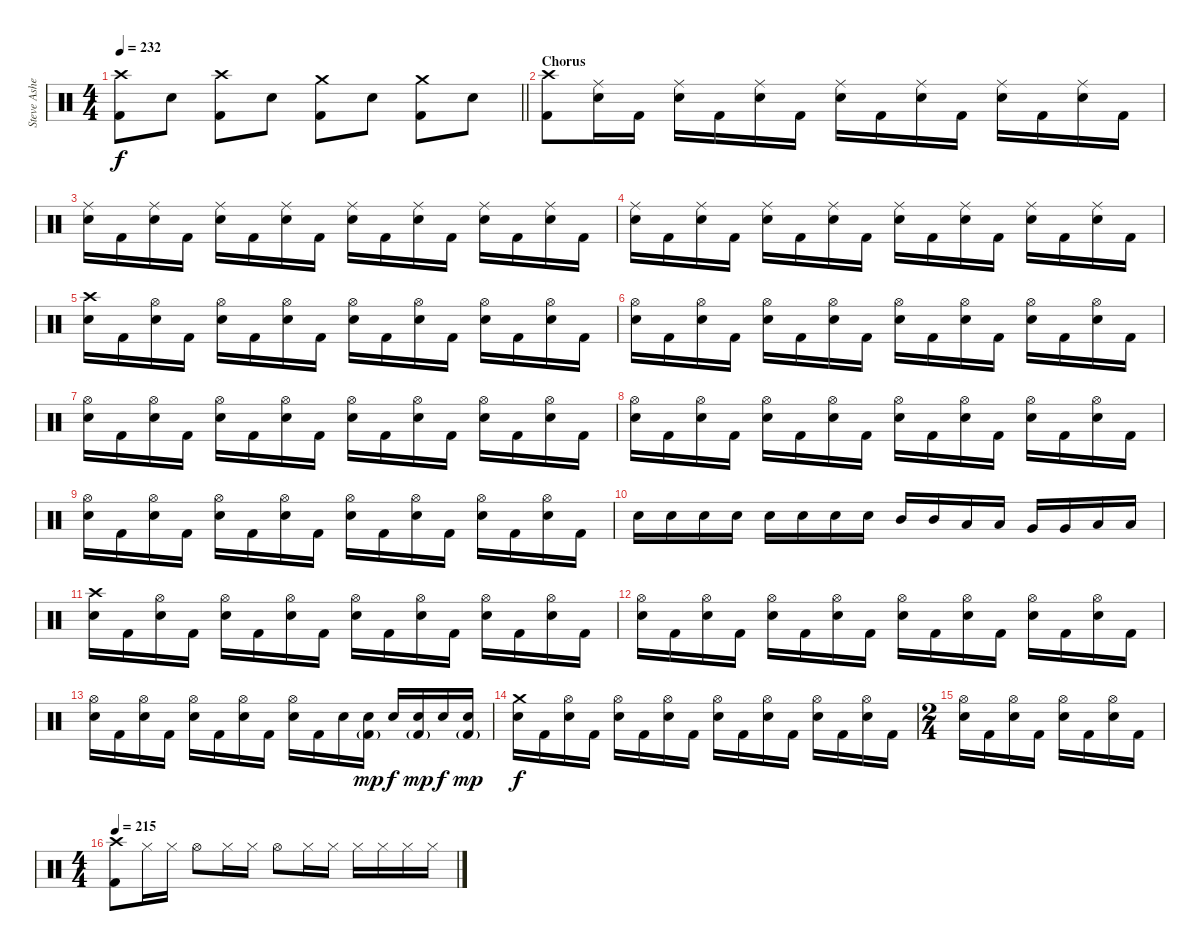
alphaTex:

\track ("Steve Asheim" "Steve Ashe") {instrument percussion}
\staff {score}
\articulation defaults
\ts (4 4)
\tempo 232
\clef neutral
\barLineRight lightlight
\ks c
("Crash high (hit)" "Kick (hit) 2").8{dy f} "Electric Snare (hit)".8 ("Crash high (hit)" "Kick (hit) 2").8 "Electric Snare (hit)".8 ("Crash medium (hit)" "Kick (hit) 2").8 "Electric Snare (hit)".8 ("Crash medium (hit)" "Kick (hit) 2").8 "Electric Snare (hit)".8 |
\section ("" "Chorus")
("Crash high (hit)" "Kick (hit) 2").8 ("Ride (middle)" "Electric Snare (hit)").16 "Kick (hit) 2".16 ("Ride (middle)" "Electric Snare (hit)").16 "Kick (hit) 2".16 ("Ride (middle)" "Electric Snare (hit)").16 "Kick (hit) 2".16 ("Ride (middle)" "Electric Snare (hit)").16 "Kick (hit) 2".16 ("Ride (middle)" "Electric Snare (hit)").16 "Kick (hit) 2".16 ("Ride (middle)" "Electric Snare (hit)").16 "Kick (hit) 2".16 ("Ride (middle)" "Electric Snare (hit)").16 "Kick (hit) 2".16 |
("Ride (middle)" "Electric Snare (hit)").16 "Kick (hit) 2".16 ("Ride (middle)" "Electric Snare (hit)").16 "Kick (hit) 2".16 ("Ride (middle)" "Electric Snare (hit)").16 "Kick (hit) 2".16 ("Ride (middle)" "Electric Snare (hit)").16 "Kick (hit) 2".16 ("Ride (middle)" "Electric Snare (hit)").16 "Kick (hit) 2".16 ("Ride (middle)" "Electric Snare (hit)").16 "Kick (hit) 2".16 ("Ride (middle)" "Electric Snare (hit)").16 "Kick (hit) 2".16 ("Ride (middle)" "Electric Snare (hit)").16 "Kick (hit) 2".16 |
("Ride (middle)" "Electric Snare (hit)").16 "Kick (hit) 2".16 ("Ride (middle)" "Electric Snare (hit)").16 "Kick (hit) 2".16 ("Ride (middle)" "Electric Snare (hit)").16 "Kick (hit) 2".16 ("Ride (middle)" "Electric Snare (hit)").16 "Kick (hit) 2".16 ("Ride (middle)" "Electric Snare (hit)").16 "Kick (hit) 2".16 ("Ride (middle)" "Electric Snare (hit)").16 "Kick (hit) 2".16 ("Ride (middle)" "Electric Snare (hit)").16 "Kick (hit) 2".16 ("Ride (middle)" "Electric Snare (hit)").16 "Kick (hit) 2".16 |
("Crash high (hit)" "Electric Snare (hit)").16 "Kick (hit) 2".16 ("Hi-Hat (open)" "Electric Snare (hit)").16 "Kick (hit) 2".16 ("Hi-Hat (open)" "Electric Snare (hit)").16 "Kick (hit) 2".16 ("Hi-Hat (open)" "Electric Snare (hit)").16 "Kick (hit) 2".16 ("Hi-Hat (open)" "Electric Snare (hit)").16 "Kick (hit) 2".16 ("Hi-Hat (open)" "Electric Snare (hit)").16 "Kick (hit) 2".16 ("Hi-Hat (open)" "Electric Snare (hit)").16 "Kick (hit) 2".16 ("Hi-Hat (open)" "Electric Snare (hit)").16 "Kick (hit) 2".16 |
("Hi-Hat (open)" "Electric Snare (hit)").16 "Kick (hit) 2".16 ("Hi-Hat (open)" "Electric Snare (hit)").16 "Kick (hit) 2".16 ("Hi-Hat (open)" "Electric Snare (hit)").16 "Kick (hit) 2".16 ("Hi-Hat (open)" "Electric Snare (hit)").16 "Kick (hit) 2".16 ("Hi-Hat (open)" "Electric Snare (hit)").16 "Kick (hit) 2".16 ("Hi-Hat (open)" "Electric Snare (hit)").16 "Kick (hit) 2".16 ("Hi-Hat (open)" "Electric Snare (hit)").16 "Kick (hit) 2".16 ("Hi-Hat (open)" "Electric Snare (hit)").16 "Kick (hit) 2".16 |
("Hi-Hat (open)" "Electric Snare (hit)").16 "Kick (hit) 2".16 ("Hi-Hat (open)" "Electric Snare (hit)").16 "Kick (hit) 2".16 ("Hi-Hat (open)" "Electric Snare (hit)").16 "Kick (hit) 2".16 ("Hi-Hat (open)" "Electric Snare (hit)").16 "Kick (hit) 2".16 ("Hi-Hat (open)" "Electric Snare (hit)").16 "Kick (hit) 2".16 ("Hi-Hat (open)" "Electric Snare (hit)").16 "Kick (hit) 2".16 ("Hi-Hat (open)" "Electric Snare (hit)").16 "Kick (hit) 2".16 ("Hi-Hat (open)" "Electric Snare (hit)").16 "Kick (hit) 2".16 |
("Hi-Hat (open)" "Electric Snare (hit)").16 "Kick (hit) 2".16 ("Hi-Hat (open)" "Electric Snare (hit)").16 "Kick (hit) 2".16 ("Hi-Hat (open)" "Electric Snare (hit)").16 "Kick (hit) 2".16 ("Hi-Hat (open)" "Electric Snare (hit)").16 "Kick (hit) 2".16 ("Hi-Hat (open)" "Electric Snare (hit)").16 "Kick (hit) 2".16 ("Hi-Hat (open)" "Electric Snare (hit)").16 "Kick (hit) 2".16 ("Hi-Hat (open)" "Electric Snare (hit)").16 "Kick (hit) 2".16 ("Hi-Hat (open)" "Electric Snare (hit)").16 "Kick (hit) 2".16 |
("Hi-Hat (open)" "Electric Snare (hit)").16 "Kick (hit) 2".16 ("Hi-Hat (open)" "Electric Snare (hit)").16 "Kick (hit) 2".16 ("Hi-Hat (open)" "Electric Snare (hit)").16 "Kick (hit) 2".16 ("Hi-Hat (open)" "Electric Snare (hit)").16 "Kick (hit) 2".16 ("Hi-Hat (open)" "Electric Snare (hit)").16 "Kick (hit) 2".16 ("Hi-Hat (open)" "Electric Snare (hit)").16 "Kick (hit) 2".16 ("Hi-Hat (open)" "Electric Snare (hit)").16 "Kick (hit) 2".16 ("Hi-Hat (open)" "Electric Snare (hit)").16 "Kick (hit) 2".16 |
"Electric Snare (hit)".16 "Electric Snare (hit)".16 "Electric Snare (hit)".16 "Electric Snare (hit)".16 "Electric Snare (hit)".16 "Electric Snare (hit)".16 "Electric Snare (hit)".16 "Electric Snare (hit)".16 "Mid Tom (hit)".16 "Mid Tom (hit)".16 "Low Tom (hit)".16 "Low Tom (hit)".16 "Very Low Tom (hit)".16 "Very Low Tom (hit)".16 "Low Floor Tom (hit)".16 "Low Floor Tom (hit)".16 |
("Crash high (hit)" "Electric Snare (hit)").16 "Kick (hit) 2".16 ("Hi-Hat (open)" "Electric Snare (hit)").16 "Kick (hit) 2".16 ("Hi-Hat (open)" "Electric Snare (hit)").16 "Kick (hit) 2".16 ("Hi-Hat (open)" "Electric Snare (hit)").16 "Kick (hit) 2".16 ("Hi-Hat (open)" "Electric Snare (hit)").16 "Kick (hit) 2".16 ("Hi-Hat (open)" "Electric Snare (hit)").16 "Kick (hit) 2".16 ("Hi-Hat (open)" "Electric Snare (hit)").16 "Kick (hit) 2".16 ("Hi-Hat (open)" "Electric Snare (hit)").16 "Kick (hit) 2".16 |
("Hi-Hat (open)" "Electric Snare (hit)").16 "Kick (hit) 2".16 ("Hi-Hat (open)" "Electric Snare (hit)").16 "Kick (hit) 2".16 ("Hi-Hat (open)" "Electric Snare (hit)").16 "Kick (hit) 2".16 ("Hi-Hat (open)" "Electric Snare (hit)").16 "Kick (hit) 2".16 ("Hi-Hat (open)" "Electric Snare (hit)").16 "Kick (hit) 2".16 ("Hi-Hat (open)" "Electric Snare (hit)").16 "Kick (hit) 2".16 ("Hi-Hat (open)" "Electric Snare (hit)").16 "Kick (hit) 2".16 ("Hi-Hat (open)" "Electric Snare (hit)").16 "Kick (hit) 2".16 |
("Hi-Hat (open)" "Electric Snare (hit)").16 "Kick (hit) 2".16 ("Hi-Hat (open)" "Electric Snare (hit)").16 "Kick (hit) 2".16 ("Hi-Hat (open)" "Electric Snare (hit)").16 "Kick (hit) 2".16 ("Hi-Hat (open)" "Electric Snare (hit)").16 "Kick (hit) 2".16 ("Hi-Hat (open)" "Electric Snare (hit)").16 "Kick (hit) 2".16 "Electric Snare (hit)".16 ("Electric Snare (hit)" "Kick (hit) 2"{g}).16{dy mp} "Electric Snare (hit)".16{dy f} ("Electric Snare (hit)" "Kick (hit) 2"{g}).16{dy mp} "Electric Snare (hit)".16{dy f} ("Electric Snare (hit)" "Kick (hit) 2"{g}).16{dy mp} |
("Crash medium (hit)" "Electric Snare (hit)").16{dy f} "Kick (hit) 2".16 ("Hi-Hat (open)" "Electric Snare (hit)").16 "Kick (hit) 2".16 ("Hi-Hat (open)" "Electric Snare (hit)").16 "Kick (hit) 2".16 ("Hi-Hat (open)" "Electric Snare (hit)").16 "Kick (hit) 2".16 ("Hi-Hat (open)" "Electric Snare (hit)").16 "Kick (hit) 2".16 ("Hi-Hat (open)" "Electric Snare (hit)").16 "Kick (hit) 2".16 ("Hi-Hat (open)" "Electric Snare (hit)").16 "Kick (hit) 2".16 ("Hi-Hat (open)" "Electric Snare (hit)").16 "Kick (hit) 2".16 |
\ts (2 4)
("Hi-Hat (open)" "Electric Snare (hit)").16 "Kick (hit) 2".16 ("Hi-Hat (open)" "Electric Snare (hit)").16 "Kick (hit) 2".16 ("Hi-Hat (open)" "Electric Snare (hit)").16 "Kick (hit) 2".16 ("Hi-Hat (open)" "Electric Snare (hit)").16 "Kick (hit) 2".16 |
\ts (4 4)
\tempo 215
("Crash high (hit)" "Kick (hit) 2").8 "Hi-Hat (closed)".16 "Hi-Hat (closed)".16 "Hi-Hat (open)".8 "Hi-Hat (closed)".16 "Hi-Hat (closed)".16 "Hi-Hat (open)".8 "Hi-Hat (closed)".16 "Hi-Hat (closed)".16 "Hi-Hat (closed)".16 "Hi-Hat (closed)".16 "Hi-Hat (closed)".16 "Hi-Hat (closed)".16
